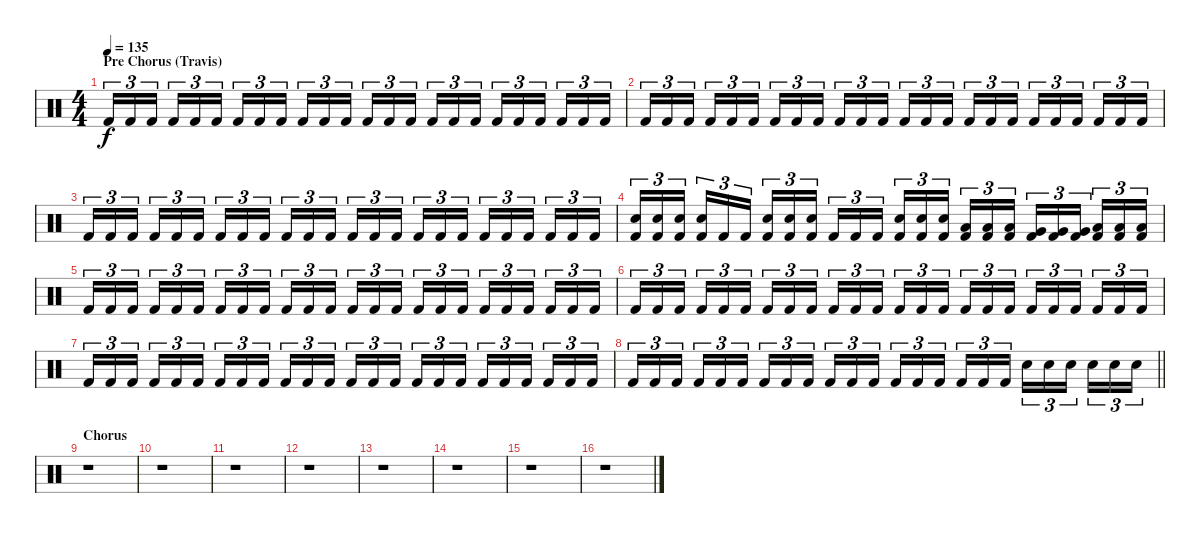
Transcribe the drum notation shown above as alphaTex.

\track "" {instrument percussion}
\staff {score}
\articulation defaults
\ts (4 4)
\section ("" "Pre Chorus (Travis)")
\tempo 135
\clef neutral
\ks c "Kick (hit) 2".16{tu (3 2) dy f} "Kick (hit) 2".16{tu (3 2)} "Kick (hit) 2".16{tu (3 2) beam splitsecondary} "Kick (hit) 2".16{tu (3 2)} "Kick (hit) 2".16{tu (3 2)} "Kick (hit) 2".16{tu (3 2)} "Kick (hit) 2".16{tu (3 2)} "Kick (hit) 2".16{tu (3 2)} "Kick (hit) 2".16{tu (3 2) beam splitsecondary} "Kick (hit) 2".16{tu (3 2)} "Kick (hit) 2".16{tu (3 2)} "Kick (hit) 2".16{tu (3 2)} "Kick (hit) 2".16{tu (3 2)} "Kick (hit) 2".16{tu (3 2)} "Kick (hit) 2".16{tu (3 2) beam splitsecondary} "Kick (hit) 2".16{tu (3 2)} "Kick (hit) 2".16{tu (3 2)} "Kick (hit) 2".16{tu (3 2)} "Kick (hit) 2".16{tu (3 2)} "Kick (hit) 2".16{tu (3 2)} "Kick (hit) 2".16{tu (3 2) beam splitsecondary} "Kick (hit) 2".16{tu (3 2)} "Kick (hit) 2".16{tu (3 2)} "Kick (hit) 2".16{tu (3 2)}
|
"Kick (hit) 2".16{tu (3 2)} "Kick (hit) 2".16{tu (3 2)} "Kick (hit) 2".16{tu (3 2) beam splitsecondary} "Kick (hit) 2".16{tu (3 2)} "Kick (hit) 2".16{tu (3 2)} "Kick (hit) 2".16{tu (3 2)} "Kick (hit) 2".16{tu (3 2)} "Kick (hit) 2".16{tu (3 2)} "Kick (hit) 2".16{tu (3 2) beam splitsecondary} "Kick (hit) 2".16{tu (3 2)} "Kick (hit) 2".16{tu (3 2)} "Kick (hit) 2".16{tu (3 2)} "Kick (hit) 2".16{tu (3 2)} "Kick (hit) 2".16{tu (3 2)} "Kick (hit) 2".16{tu (3 2) beam splitsecondary} "Kick (hit) 2".16{tu (3 2)} "Kick (hit) 2".16{tu (3 2)} "Kick (hit) 2".16{tu (3 2)} "Kick (hit) 2".16{tu (3 2)} "Kick (hit) 2".16{tu (3 2)} "Kick (hit) 2".16{tu (3 2) beam splitsecondary} "Kick (hit) 2".16{tu (3 2)} "Kick (hit) 2".16{tu (3 2)} "Kick (hit) 2".16{tu (3 2)} |
"Kick (hit) 2".16{tu (3 2)} "Kick (hit) 2".16{tu (3 2)} "Kick (hit) 2".16{tu (3 2) beam splitsecondary} "Kick (hit) 2".16{tu (3 2)} "Kick (hit) 2".16{tu (3 2)} "Kick (hit) 2".16{tu (3 2)} "Kick (hit) 2".16{tu (3 2)} "Kick (hit) 2".16{tu (3 2)} "Kick (hit) 2".16{tu (3 2) beam splitsecondary} "Kick (hit) 2".16{tu (3 2)} "Kick (hit) 2".16{tu (3 2)} "Kick (hit) 2".16{tu (3 2)} "Kick (hit) 2".16{tu (3 2)} "Kick (hit) 2".16{tu (3 2)} "Kick (hit) 2".16{tu (3 2) beam splitsecondary} "Kick (hit) 2".16{tu (3 2)} "Kick (hit) 2".16{tu (3 2)} "Kick (hit) 2".16{tu (3 2)} "Kick (hit) 2".16{tu (3 2)} "Kick (hit) 2".16{tu (3 2)} "Kick (hit) 2".16{tu (3 2) beam splitsecondary} "Kick (hit) 2".16{tu (3 2)} "Kick (hit) 2".16{tu (3 2)} "Kick (hit) 2".16{tu (3 2)} |
("Snare (hit) 2" "Kick (hit) 2").16{tu (3 2)} ("Snare (hit) 2" "Kick (hit) 2").16{tu (3 2)} ("Snare (hit) 2" "Kick (hit) 2").16{tu (3 2) beam splitsecondary} ("Snare (hit) 2" "Kick (hit) 2").16{tu (3 2)} "Kick (hit) 2".16{tu (3 2)} "Kick (hit) 2".16{tu (3 2)} ("Snare (hit) 2" "Kick (hit) 2").16{tu (3 2)} ("Snare (hit) 2" "Kick (hit) 2").16{tu (3 2)} ("Snare (hit) 2" "Kick (hit) 2").16{tu (3 2) beam splitsecondary} "Kick (hit) 2".16{tu (3 2)} "Kick (hit) 2".16{tu (3 2)} "Kick (hit) 2".16{tu (3 2)} ("Snare (hit) 2" "Kick (hit) 2").16{tu (3 2)} ("Snare (hit) 2" "Kick (hit) 2").16{tu (3 2)} ("Snare (hit) 2" "Kick (hit) 2").16{tu (3 2) beam splitsecondary} ("Low Tom (hit)" "Kick (hit) 2").16{tu (3 2)} ("Low Tom (hit)" "Kick (hit) 2").16{tu (3 2)} ("Low Tom (hit)" "Kick (hit) 2").16{tu (3 2)} ("Very Low Tom (hit)" "Kick (hit) 2").16{tu (3 2)} ("Very Low Tom (hit)" "Kick (hit) 2").16{tu (3 2)} ("Very Low Tom (hit)" "Kick (hit) 2").16{tu (3 2) beam splitsecondary} ("Low Floor Tom (hit)" "Kick (hit) 2").16{tu (3 2)} ("Low Floor Tom (hit)" "Kick (hit) 2").16{tu (3 2)} ("Low Floor Tom (hit)" "Kick (hit) 2").16{tu (3 2)} |
"Kick (hit) 2".16{tu (3 2)} "Kick (hit) 2".16{tu (3 2)} "Kick (hit) 2".16{tu (3 2) beam splitsecondary} "Kick (hit) 2".16{tu (3 2)} "Kick (hit) 2".16{tu (3 2)} "Kick (hit) 2".16{tu (3 2)} "Kick (hit) 2".16{tu (3 2)} "Kick (hit) 2".16{tu (3 2)} "Kick (hit) 2".16{tu (3 2) beam splitsecondary} "Kick (hit) 2".16{tu (3 2)} "Kick (hit) 2".16{tu (3 2)} "Kick (hit) 2".16{tu (3 2)} "Kick (hit) 2".16{tu (3 2)} "Kick (hit) 2".16{tu (3 2)} "Kick (hit) 2".16{tu (3 2) beam splitsecondary} "Kick (hit) 2".16{tu (3 2)} "Kick (hit) 2".16{tu (3 2)} "Kick (hit) 2".16{tu (3 2)} "Kick (hit) 2".16{tu (3 2)} "Kick (hit) 2".16{tu (3 2)} "Kick (hit) 2".16{tu (3 2) beam splitsecondary} "Kick (hit) 2".16{tu (3 2)} "Kick (hit) 2".16{tu (3 2)} "Kick (hit) 2".16{tu (3 2)} |
"Kick (hit) 2".16{tu (3 2)} "Kick (hit) 2".16{tu (3 2)} "Kick (hit) 2".16{tu (3 2) beam splitsecondary} "Kick (hit) 2".16{tu (3 2)} "Kick (hit) 2".16{tu (3 2)} "Kick (hit) 2".16{tu (3 2)} "Kick (hit) 2".16{tu (3 2)} "Kick (hit) 2".16{tu (3 2)} "Kick (hit) 2".16{tu (3 2) beam splitsecondary} "Kick (hit) 2".16{tu (3 2)} "Kick (hit) 2".16{tu (3 2)} "Kick (hit) 2".16{tu (3 2)} "Kick (hit) 2".16{tu (3 2)} "Kick (hit) 2".16{tu (3 2)} "Kick (hit) 2".16{tu (3 2) beam splitsecondary} "Kick (hit) 2".16{tu (3 2)} "Kick (hit) 2".16{tu (3 2)} "Kick (hit) 2".16{tu (3 2)} "Kick (hit) 2".16{tu (3 2)} "Kick (hit) 2".16{tu (3 2)} "Kick (hit) 2".16{tu (3 2) beam splitsecondary} "Kick (hit) 2".16{tu (3 2)} "Kick (hit) 2".16{tu (3 2)} "Kick (hit) 2".16{tu (3 2)} |
"Kick (hit) 2".16{tu (3 2)} "Kick (hit) 2".16{tu (3 2)} "Kick (hit) 2".16{tu (3 2) beam splitsecondary} "Kick (hit) 2".16{tu (3 2)} "Kick (hit) 2".16{tu (3 2)} "Kick (hit) 2".16{tu (3 2)} "Kick (hit) 2".16{tu (3 2)} "Kick (hit) 2".16{tu (3 2)} "Kick (hit) 2".16{tu (3 2) beam splitsecondary} "Kick (hit) 2".16{tu (3 2)} "Kick (hit) 2".16{tu (3 2)} "Kick (hit) 2".16{tu (3 2)} "Kick (hit) 2".16{tu (3 2)} "Kick (hit) 2".16{tu (3 2)} "Kick (hit) 2".16{tu (3 2) beam splitsecondary} "Kick (hit) 2".16{tu (3 2)} "Kick (hit) 2".16{tu (3 2)} "Kick (hit) 2".16{tu (3 2)} "Kick (hit) 2".16{tu (3 2)} "Kick (hit) 2".16{tu (3 2)} "Kick (hit) 2".16{tu (3 2) beam splitsecondary} "Kick (hit) 2".16{tu (3 2)} "Kick (hit) 2".16{tu (3 2)} "Kick (hit) 2".16{tu (3 2)} |
\barLineRight lightlight "Kick (hit) 2".16{tu (3 2)} "Kick (hit) 2".16{tu (3 2)} "Kick (hit) 2".16{tu (3 2) beam splitsecondary} "Kick (hit) 2".16{tu (3 2)} "Kick (hit) 2".16{tu (3 2)} "Kick (hit) 2".16{tu (3 2)} "Kick (hit) 2".16{tu (3 2)} "Kick (hit) 2".16{tu (3 2)} "Kick (hit) 2".16{tu (3 2) beam splitsecondary} "Kick (hit) 2".16{tu (3 2)} "Kick (hit) 2".16{tu (3 2)} "Kick (hit) 2".16{tu (3 2)} "Kick (hit) 2".16{tu (3 2)} "Kick (hit) 2".16{tu (3 2)} "Kick (hit) 2".16{tu (3 2) beam splitsecondary} "Kick (hit) 2".16{tu (3 2)} "Kick (hit) 2".16{tu (3 2)} "Kick (hit) 2".16{tu (3 2)} "Snare (hit) 2".16{tu (3 2)} "Snare (hit) 2".16{tu (3 2)} "Snare (hit) 2".16{tu (3 2) beam splitsecondary} "Snare (hit) 2".16{tu (3 2)} "Snare (hit) 2".16{tu (3 2)} "Snare (hit) 2".16{tu (3 2)}
|
\section ("" "Chorus")
r.1 |
r.1 |
r.1 |
r.1 |
r.1 |
r.1 |
r.1 |
r.1
